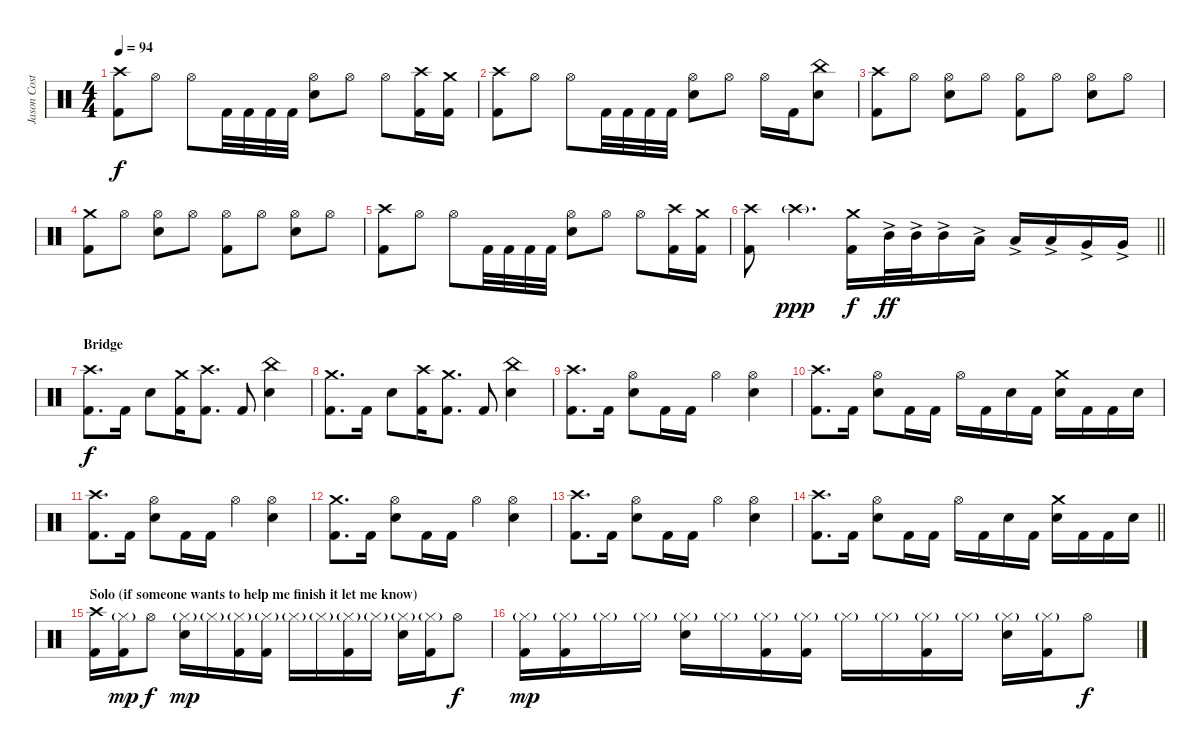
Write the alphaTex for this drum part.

\track ("Jason Costa" "Jason Cost") {instrument percussion}
\staff {score}
\articulation defaults
\ts (4 4)
\tempo 94
\clef neutral
\ks c
("Crash high (hit)" "Kick (hit) 2").8{dy f} "Hi-Hat (open)".8 "Hi-Hat (open)".8 "Kick (hit) 2".32 "Kick (hit) 2".32 "Kick (hit) 2".32 "Kick (hit) 2".32 ("Snare (hit) 2" "Hi-Hat (open)").8 "Hi-Hat (open)".8 "Hi-Hat (open)".8 ("Crash high (hit)" "Kick (hit) 2").16 ("Crash medium (hit)" "Kick (hit) 2").16 |
("Crash high (hit)" "Kick (hit) 2").8 "Hi-Hat (open)".8 "Hi-Hat (open)".8 "Kick (hit) 2".32 "Kick (hit) 2".32 "Kick (hit) 2".32 "Kick (hit) 2".32 ("Snare (hit) 2" "Hi-Hat (open)").8 "Hi-Hat (open)".8 "Hi-Hat (open)".16 "Kick (hit) 2".16 ("China (hit)" "Snare (hit) 2").8 |
("Crash high (hit)" "Kick (hit) 2").8 "Hi-Hat (open)".8 ("Snare (hit) 2" "Hi-Hat (open)").8 "Hi-Hat (open)".8 ("Hi-Hat (open)" "Kick (hit) 2").8 "Hi-Hat (open)".8 ("Snare (hit) 2" "Hi-Hat (open)").8 "Hi-Hat (open)".8 |
("Crash medium (hit)" "Kick (hit) 2").8 "Hi-Hat (open)".8 ("Snare (hit) 2" "Hi-Hat (open)").8 "Hi-Hat (open)".8 ("Hi-Hat (open)" "Kick (hit) 2").8 "Hi-Hat (open)".8 ("Snare (hit) 2" "Hi-Hat (open)").8 "Hi-Hat (open)".8 |
("Crash high (hit)" "Kick (hit) 2").8 "Hi-Hat (open)".8 "Hi-Hat (open)".8 "Kick (hit) 2".32 "Kick (hit) 2".32 "Kick (hit) 2".32 "Kick (hit) 2".32 ("Snare (hit) 2" "Hi-Hat (open)").8 "Hi-Hat (open)".8 "Hi-Hat (open)".8 ("Crash high (hit)" "Kick (hit) 2").16 ("Crash medium (hit)" "Kick (hit) 2").16 |
\barLineRight lightlight
("Crash high (hit)" "Kick (hit) 2").8 "Crash high (hit)"{g}.4{d dy ppp} ("Crash medium (hit)" "Kick (hit) 2").16{dy f} "Mid Tom (hit)"{ac}.32{dy ff} "Mid Tom (hit)"{ac}.32 "Mid Tom (hit)"{ac}.16 "Low Tom (hit)"{ac}.16 "Low Tom (hit)"{ac}.16 "Low Tom (hit)"{ac}.16 "Very Low Tom (hit)"{ac}.16 "Very Low Tom (hit)"{ac}.16 |
\section ("" "Bridge")
("Crash high (hit)" "Kick (hit) 2").8{d dy f} "Kick (hit) 2".16 "Snare (hit) 2".8 ("Crash medium (hit)" "Kick (hit) 2").16 ("Crash high (hit)" "Kick (hit) 2").8{d} "Kick (hit) 2".8 ("China (hit)" "Snare (hit) 2").4 |
("Crash medium (hit)" "Kick (hit) 2").8{d} "Kick (hit) 2".16 "Snare (hit) 2".8 ("Crash high (hit)" "Kick (hit) 2").16 ("Crash medium (hit)" "Kick (hit) 2").8{d} "Kick (hit) 2".8 ("China (hit)" "Snare (hit) 2").4 |
("Crash high (hit)" "Kick (hit) 2").8{d} "Kick (hit) 2".16 ("Snare (hit) 2" "Hi-Hat (open)").8 "Kick (hit) 2".16 "Kick (hit) 2".16 "Hi-Hat (open)".4 ("Snare (hit) 2" "Hi-Hat (open)").4 |
("Crash high (hit)" "Kick (hit) 2").8{d} "Kick (hit) 2".16 ("Snare (hit) 2" "Hi-Hat (open)").8 "Kick (hit) 2".16 "Kick (hit) 2".16 "Hi-Hat (open)".16 "Kick (hit) 2".16 "Snare (hit) 2".16 "Kick (hit) 2".16 ("Crash medium (hit)" "Snare (hit) 2").16 "Kick (hit) 2".16 "Kick (hit) 2".16 "Snare (hit) 2".16 |
("Crash high (hit)" "Kick (hit) 2").8{d} "Kick (hit) 2".16 ("Snare (hit) 2" "Hi-Hat (open)").8 "Kick (hit) 2".16 "Kick (hit) 2".16 "Hi-Hat (open)".4 ("Snare (hit) 2" "Hi-Hat (open)").4 |
("Crash medium (hit)" "Kick (hit) 2").8{d} "Kick (hit) 2".16 ("Snare (hit) 2" "Hi-Hat (open)").8 "Kick (hit) 2".16 "Kick (hit) 2".16 "Hi-Hat (open)".4 ("Snare (hit) 2" "Hi-Hat (open)").4 |
("Crash high (hit)" "Kick (hit) 2").8{d} "Kick (hit) 2".16 ("Snare (hit) 2" "Hi-Hat (open)").8 "Kick (hit) 2".16 "Kick (hit) 2".16 "Hi-Hat (open)".4 ("Snare (hit) 2" "Hi-Hat (open)").4 |
\barLineRight lightlight
("Crash high (hit)" "Kick (hit) 2").8{d} "Kick (hit) 2".16 ("Snare (hit) 2" "Hi-Hat (open)").8 "Kick (hit) 2".16 "Kick (hit) 2".16 "Hi-Hat (open)".16 "Kick (hit) 2".16 "Snare (hit) 2".16 "Kick (hit) 2".16 ("Crash medium (hit)" "Snare (hit) 2").16 "Kick (hit) 2".16 "Kick (hit) 2".16 "Snare (hit) 2".16 |
\section ("" "Solo (if someone wants to help me finish it let me know)")
("Crash high (hit)" "Kick (hit) 2").16 ("Hi-Hat (closed)"{g} "Kick (hit) 2").16{dy mp} "Hi-Hat (open)".8{dy f} ("Snare (hit) 2" "Hi-Hat (closed)"{g}).16{dy mp} "Hi-Hat (closed)"{g}.16 ("Hi-Hat (closed)"{g} "Kick (hit) 2").16 ("Hi-Hat (closed)"{g} "Kick (hit) 2").16 "Hi-Hat (closed)"{g}.16 "Hi-Hat (closed)"{g}.16 ("Hi-Hat (closed)"{g} "Kick (hit) 2").16 "Hi-Hat (closed)"{g}.16 ("Snare (hit) 2" "Hi-Hat (closed)"{g}).16 ("Hi-Hat (closed)"{g} "Kick (hit) 2").16 "Hi-Hat (open)".8{dy f} |
("Hi-Hat (closed)"{g} "Kick (hit) 2").16{dy mp} ("Hi-Hat (closed)"{g} "Kick (hit) 2").16 "Hi-Hat (closed)"{g}.16 "Hi-Hat (closed)"{g}.16 ("Snare (hit) 2" "Hi-Hat (closed)"{g}).16 "Hi-Hat (closed)"{g}.16 ("Hi-Hat (closed)"{g} "Kick (hit) 2").16 ("Hi-Hat (closed)"{g} "Kick (hit) 2").16 "Hi-Hat (closed)"{g}.16 "Hi-Hat (closed)"{g}.16 ("Hi-Hat (closed)"{g} "Kick (hit) 2").16 "Hi-Hat (closed)"{g}.16 ("Snare (hit) 2" "Hi-Hat (closed)"{g}).16 ("Hi-Hat (closed)"{g} "Kick (hit) 2").16 "Hi-Hat (open)".8{dy f}
